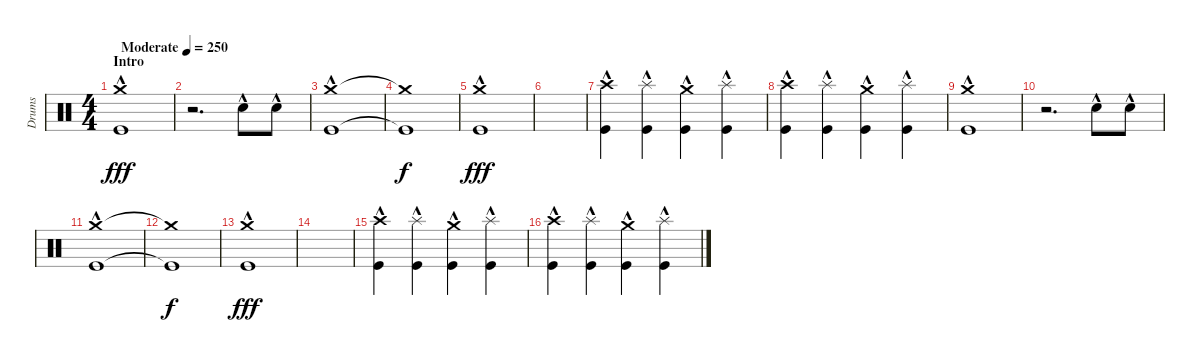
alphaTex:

\track ("Drums" "Drums") {instrument percussion}
\staff {score}
\articulation defaults
\ts (4 4)
\section ("" "Intro")
\tempo (250 "Moderate")
\clef neutral
\ks c
("Crash medium (hit)"{hac} "Kick (hit)"{hac}).1{dy fff} |
r.2{d} "Snare (hit) 2"{hac}.8 "Snare (hit) 2"{hac}.8 |
("Crash medium (hit)"{hac} "Kick (hit)"{hac}).1 |
("Crash medium (hit)"{t} "Kick (hit)"{t}).1{dy f} |
("Crash medium (hit)"{hac} "Kick (hit)"{hac}).1{dy fff} |
|
("Crash high (hit)"{hac} "Kick (hit)"{hac}).4 ("Splash (hit)"{hac} "Kick (hit)"{hac}).4 ("Crash medium (hit)"{hac} "Kick (hit)"{hac}).4 ("Splash (hit)"{hac} "Kick (hit)"{hac}).4 |
("Crash high (hit)"{hac} "Kick (hit)"{hac}).4 ("Splash (hit)"{hac} "Kick (hit)"{hac}).4 ("Crash medium (hit)"{hac} "Kick (hit)"{hac}).4 ("Splash (hit)"{hac} "Kick (hit)"{hac}).4 |
("Crash medium (hit)"{hac} "Kick (hit)"{hac}).1 |
r.2{d} "Snare (hit) 2"{hac}.8 "Snare (hit) 2"{hac}.8 |
("Crash medium (hit)"{hac} "Kick (hit)"{hac}).1 |
("Crash medium (hit)"{t} "Kick (hit)"{t}).1{dy f} |
("Crash medium (hit)"{hac} "Kick (hit)"{hac}).1{dy fff} |
|
("Crash high (hit)"{hac} "Kick (hit)"{hac}).4 ("Splash (hit)"{hac} "Kick (hit)"{hac}).4 ("Crash medium (hit)"{hac} "Kick (hit)"{hac}).4 ("Splash (hit)"{hac} "Kick (hit)"{hac}).4 |
("Crash high (hit)"{hac} "Kick (hit)"{hac}).4 ("Splash (hit)"{hac} "Kick (hit)"{hac}).4 ("Crash medium (hit)"{hac} "Kick (hit)"{hac}).4 ("Splash (hit)"{hac} "Kick (hit)"{hac}).4
